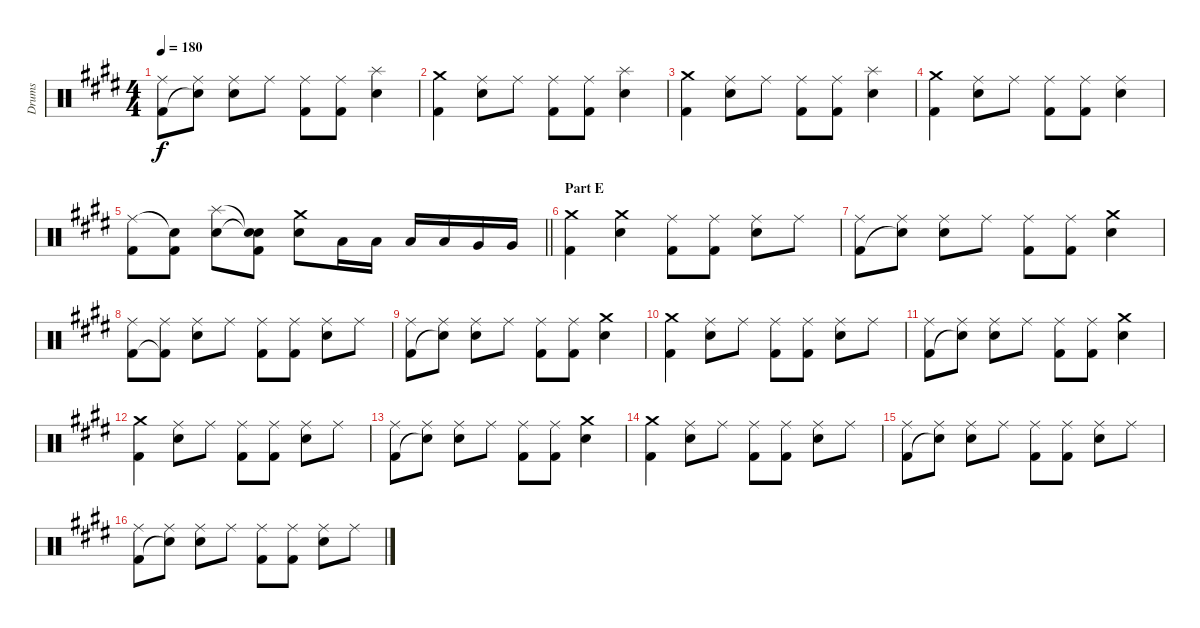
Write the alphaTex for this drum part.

\track ("Drums" "Drums") {instrument percussion}
\staff {score}
\articulation defaults
\ts (4 4)
\tempo 180
\clef neutral
\ks e
("Ride (middle)" "Kick (hit) 2").8{dy f} ("Ride (middle)" "Snare (hit)"{t}).8 ("Ride (middle)" "Electric Snare (hit)").8 "Ride (middle)".8 ("Ride (middle)" "Kick (hit) 2").8 ("Ride (middle)" "Kick (hit) 2").8 ("Splash (hit)" "Electric Snare (hit)").4 |
("Crash medium (hit)" "Kick (hit) 2").4 ("Ride (middle)" "Electric Snare (hit)").8 "Ride (middle)".8 ("Ride (middle)" "Kick (hit) 2").8 ("Ride (middle)" "Kick (hit) 2").8 ("Splash (hit)" "Electric Snare (hit)").4 |
("Crash medium (hit)" "Kick (hit) 2").4 ("Ride (middle)" "Electric Snare (hit)").8 "Ride (middle)".8 ("Ride (middle)" "Kick (hit) 2").8 ("Ride (middle)" "Kick (hit) 2").8 ("Splash (hit)" "Electric Snare (hit)").4 |
("Crash medium (hit)" "Kick (hit) 2").4 ("Ride (middle)" "Electric Snare (hit)").8 "Ride (middle)".8 ("Ride (middle)" "Kick (hit) 2").8 ("Ride (middle)" "Kick (hit) 2").8 ("Ride (middle)" "Electric Snare (hit)").4 |
\barLineRight lightlight
("Ride (middle)" "Kick (hit) 2").8 ("Snare (hit)"{t} "Kick (hit) 2").8 ("Splash (hit)" "Electric Snare (hit)").8 ("Snare (hit)"{t} "Snare (hit)"{t} "Kick (hit) 2").8 ("Crash medium (hit)" "Electric Snare (hit)").8 "Low Tom (hit)".16 "Low Tom (hit)".16 "Low Tom (hit)".16 "Low Tom (hit)".16 "Very Low Tom (hit)".16 "Very Low Tom (hit)".16 |
\section ("" "Part E")
("Crash medium (hit)" "Kick (hit) 2").4 ("Crash medium (hit)" "Electric Snare (hit)").4 ("Ride (middle)" "Kick (hit) 2").8 ("Ride (middle)" "Kick (hit) 2").8 ("Ride (middle)" "Electric Snare (hit)").8 "Ride (middle)".8 |
("Ride (middle)" "Kick (hit) 2").8 ("Ride (middle)" "Snare (hit)"{t}).8 ("Ride (middle)" "Electric Snare (hit)").8 "Ride (middle)".8 ("Ride (middle)" "Kick (hit) 2").8 ("Ride (middle)" "Kick (hit) 2").8 ("Crash medium (hit)" "Electric Snare (hit)").4 |
("Ride (middle)" "Kick (hit) 2").8 ("Ride (middle)" "Kick (hit) 2"{t}).8 ("Ride (middle)" "Electric Snare (hit)").8 "Ride (middle)".8 ("Ride (middle)" "Kick (hit) 2").8 ("Ride (middle)" "Kick (hit) 2").8 ("Ride (middle)" "Electric Snare (hit)").8 "Ride (middle)".8 |
("Ride (middle)" "Kick (hit) 2").8 ("Ride (middle)" "Snare (hit)"{t}).8 ("Ride (middle)" "Electric Snare (hit)").8 "Ride (middle)".8 ("Ride (middle)" "Kick (hit) 2").8 ("Ride (middle)" "Kick (hit) 2").8 ("Crash medium (hit)" "Electric Snare (hit)").4 |
("Crash medium (hit)" "Kick (hit) 2").4 ("Ride (middle)" "Electric Snare (hit)").8 "Ride (middle)".8 ("Ride (middle)" "Kick (hit) 2").8 ("Ride (middle)" "Kick (hit) 2").8 ("Ride (middle)" "Electric Snare (hit)").8 "Ride (middle)".8 |
("Ride (middle)" "Kick (hit) 2").8 ("Ride (middle)" "Snare (hit)"{t}).8 ("Ride (middle)" "Electric Snare (hit)").8 "Ride (middle)".8 ("Ride (middle)" "Kick (hit) 2").8 ("Ride (middle)" "Kick (hit) 2").8 ("Crash medium (hit)" "Electric Snare (hit)").4 |
("Crash medium (hit)" "Kick (hit) 2").4 ("Ride (middle)" "Electric Snare (hit)").8 "Ride (middle)".8 ("Ride (middle)" "Kick (hit) 2").8 ("Ride (middle)" "Kick (hit) 2").8 ("Ride (middle)" "Electric Snare (hit)").8 "Ride (middle)".8 |
("Ride (middle)" "Kick (hit) 2").8 ("Ride (middle)" "Snare (hit)"{t}).8 ("Ride (middle)" "Electric Snare (hit)").8 "Ride (middle)".8 ("Ride (middle)" "Kick (hit) 2").8 ("Ride (middle)" "Kick (hit) 2").8 ("Crash medium (hit)" "Electric Snare (hit)").4 |
("Crash medium (hit)" "Kick (hit) 2").4 ("Ride (middle)" "Electric Snare (hit)").8 "Ride (middle)".8 ("Ride (middle)" "Kick (hit) 2").8 ("Ride (middle)" "Kick (hit) 2").8 ("Ride (middle)" "Electric Snare (hit)").8 "Ride (middle)".8 |
("Ride (middle)" "Kick (hit) 2").8 ("Ride (middle)" "Snare (hit)"{t}).8 ("Ride (middle)" "Electric Snare (hit)").8 "Ride (middle)".8 ("Ride (middle)" "Kick (hit) 2").8 ("Ride (middle)" "Kick (hit) 2").8 ("Ride (middle)" "Electric Snare (hit)").8 "Ride (middle)".8 |
("Ride (middle)" "Kick (hit) 2").8 ("Ride (middle)" "Snare (hit)"{t}).8 ("Ride (middle)" "Electric Snare (hit)").8 "Ride (middle)".8 ("Ride (middle)" "Kick (hit) 2").8 ("Ride (middle)" "Kick (hit) 2").8 ("Ride (middle)" "Electric Snare (hit)").8 "Ride (middle)".8
